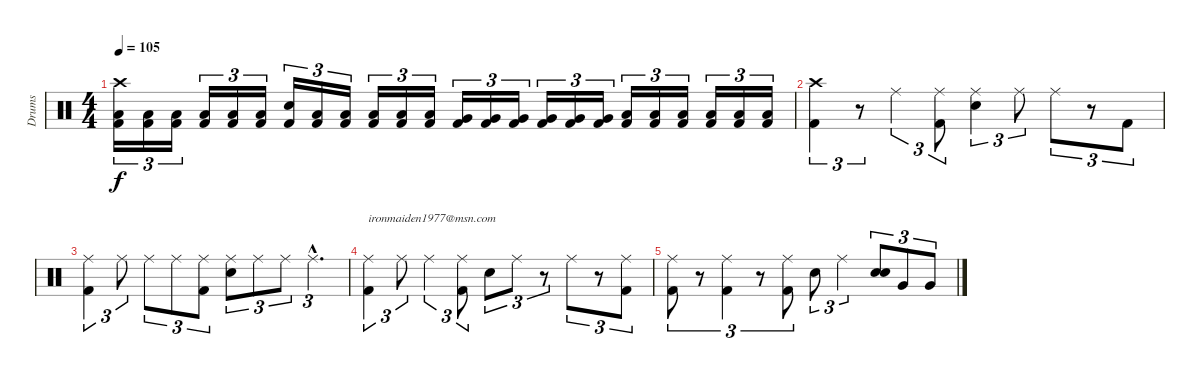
\track ("Drums" "Drums") {instrument percussion}
\staff {score}
\articulation defaults
\ts (4 4)
\tempo 105
\clef neutral
\ks c
("Crash high (hit)" "Kick (hit) 2" "Low Tom (hit)").16{tu (3 2) dy f} ("Kick (hit) 2" "Low Tom (hit)").16{tu (3 2)} ("Kick (hit) 2" "Low Tom (hit)").16{tu (3 2)} ("Kick (hit) 2" "Low Tom (hit)").16{tu (3 2)} ("Kick (hit) 2" "Low Tom (hit)").16{tu (3 2)} ("Kick (hit) 2" "Low Tom (hit)").16{tu (3 2)} ("Kick (hit) 2" "Snare (hit) 2").16{tu (3 2)} ("Kick (hit) 2" "Low Tom (hit)").16{tu (3 2)} ("Kick (hit) 2" "Low Tom (hit)").16{tu (3 2)} ("Kick (hit) 2" "Low Tom (hit)").16{tu (3 2)} ("Kick (hit) 2" "Low Tom (hit)").16{tu (3 2)} ("Kick (hit) 2" "Low Tom (hit)").16{tu (3 2)} ("Kick (hit) 2" "Very Low Tom (hit)").16{tu (3 2)} ("Kick (hit) 2" "Very Low Tom (hit)").16{tu (3 2)} ("Kick (hit) 2" "Very Low Tom (hit)").16{tu (3 2)} ("Kick (hit) 2" "Very Low Tom (hit)").16{tu (3 2)} ("Kick (hit) 2" "Very Low Tom (hit)").16{tu (3 2)} ("Kick (hit) 2" "Very Low Tom (hit)").16{tu (3 2)} ("Kick (hit) 2" "Low Floor Tom (hit)").16{tu (3 2)} ("Kick (hit) 2" "Low Floor Tom (hit)").16{tu (3 2)} ("Kick (hit) 2" "Low Floor Tom (hit)").16{tu (3 2)} ("Kick (hit) 2" "Low Floor Tom (hit)").16{tu (3 2)} ("Kick (hit) 2" "Low Floor Tom (hit)").16{tu (3 2)} ("Kick (hit) 2" "Low Floor Tom (hit)").16{tu (3 2)} |
("Crash high (hit)" "Kick (hit) 2").4{tu (3 2) volume 0} r.8{tu (3 2)} "Ride (middle)".4{tu (3 2)} ("Ride (middle)" "Kick (hit) 2").8{tu (3 2)} ("Ride (middle)" "Snare (hit) 2").4{tu (3 2)} "Ride (middle)".8{tu (3 2)} "Ride (middle)".8{tu (3 2)} r.8{tu (3 2)} "Kick (hit) 2".8{tu (3 2)} |
("Ride (middle)" "Kick (hit) 2").4{tu (3 2)} "Ride (middle)".8{tu (3 2)} "Ride (middle)".8{tu (3 2)} "Ride (middle)".8{tu (3 2)} ("Ride (middle)" "Kick (hit) 2").8{tu (3 2)} ("Ride (middle)" "Snare (hit) 2").8{tu (3 2)} "Ride (middle)".8{tu (3 2)} "Ride (middle)".8{tu (3 2)} "Ride (middle)"{hac}.4{d tu (3 2)} |
("Ride (middle)" "Kick (hit) 2").4{tu (3 2) txt "ironmaiden1977@msn.com"} "Ride (middle)".8{tu (3 2)} "Ride (middle)".4{tu (3 2)} ("Ride (middle)" "Kick (hit) 2").8{tu (3 2)} "Snare (hit) 2".8{tu (3 2)} "Ride (middle)".8{tu (3 2)} r.8{tu (3 2)} "Ride (middle)".8{tu (3 2)} r.8{tu (3 2)} ("Ride (middle)" "Kick (hit) 2").8{tu (3 2)} |
("Ride (middle)" "Kick (hit) 2").8{tu (3 2)} r.8{tu (3 2)} ("Ride (middle)" "Kick (hit) 2").4{tu (3 2)} r.8{tu (3 2)} ("Ride (middle)" "Kick (hit) 2").8{tu (3 2)} "Snare (hit) 2".8{tu (3 2)} "Ride (middle)".4{tu (3 2)} ("Snare (hit) 2" "Snare (hit) 2").8{tu (3 2)} "Very Low Tom (hit)".8{tu (3 2)} "Very Low Tom (hit)".8{tu (3 2)}
